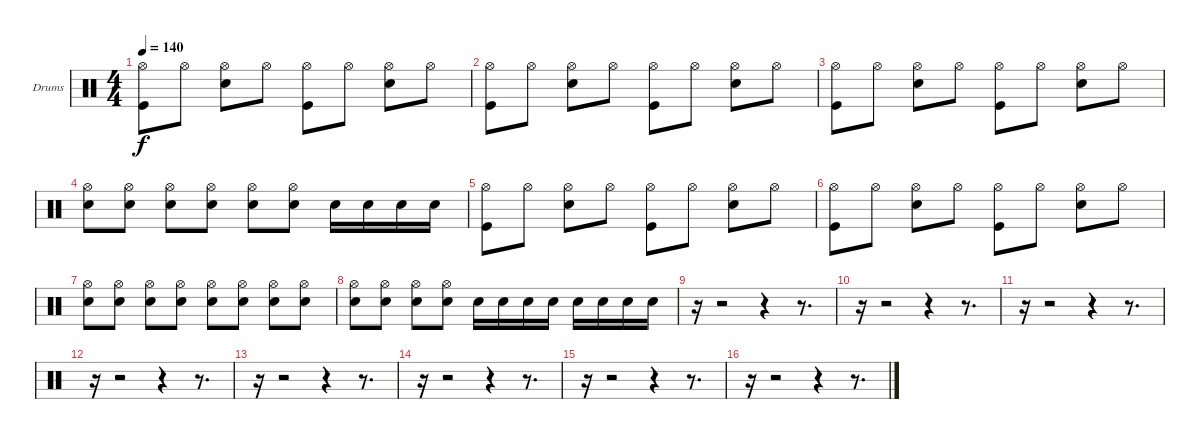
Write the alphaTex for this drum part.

\bracketExtendMode groupsimilarinstruments
\firstSystemTrackNameOrientation horizontal
\otherSystemsTrackNameOrientation horizontal
\track ("Drumkit" "Drums") {instrument percussion}
\staff {score}
\articulation defaults
\ts (4 4)
\tempo 140
\clef neutral
\scale
0.333333
\ks c
("Hi-Hat (open)" "Kick (hit)").8{dy f} "Hi-Hat (open)".8 ("Hi-Hat (open)" "Snare (hit) 2").8 "Hi-Hat (open)".8 ("Hi-Hat (open)" "Kick (hit)").8 "Hi-Hat (open)".8 ("Hi-Hat (open)" "Snare (hit) 2").8 "Hi-Hat (open)".8 |
\scale
0.333333 ("Hi-Hat (open)" "Kick (hit)").8 "Hi-Hat (open)".8 ("Hi-Hat (open)" "Snare (hit) 2").8 "Hi-Hat (open)".8 ("Hi-Hat (open)" "Kick (hit)").8 "Hi-Hat (open)".8 ("Hi-Hat (open)" "Snare (hit) 2").8 "Hi-Hat (open)".8 |
\scale
0.333333 ("Hi-Hat (open)" "Kick (hit)").8 "Hi-Hat (open)".8 ("Hi-Hat (open)" "Snare (hit) 2").8 "Hi-Hat (open)".8 ("Hi-Hat (open)" "Kick (hit)").8 "Hi-Hat (open)".8 ("Hi-Hat (open)" "Snare (hit) 2").8 "Hi-Hat (open)".8 |
\scale
0.333333 ("Hi-Hat (open)" "Snare (hit) 2").8 ("Hi-Hat (open)" "Snare (hit) 2").8 ("Hi-Hat (open)" "Snare (hit) 2").8 ("Hi-Hat (open)" "Snare (hit) 2").8 ("Hi-Hat (open)" "Snare (hit) 2").8 ("Hi-Hat (open)" "Snare (hit) 2").8 "Snare (hit) 2".16 "Snare (hit) 2".16 "Snare (hit) 2".16 "Snare (hit) 2".16 |
\scale
0.333333 ("Hi-Hat (open)" "Kick (hit)").8 "Hi-Hat (open)".8 ("Hi-Hat (open)" "Snare (hit) 2").8 "Hi-Hat (open)".8 ("Hi-Hat (open)" "Kick (hit)").8 "Hi-Hat (open)".8 ("Hi-Hat (open)" "Snare (hit) 2").8 "Hi-Hat (open)".8 |
\scale
0.333333 ("Hi-Hat (open)" "Kick (hit)").8 "Hi-Hat (open)".8 ("Hi-Hat (open)" "Snare (hit) 2").8 "Hi-Hat (open)".8 ("Hi-Hat (open)" "Kick (hit)").8 "Hi-Hat (open)".8 ("Hi-Hat (open)" "Snare (hit) 2").8 "Hi-Hat (open)".8 |
\scale
0.333333 ("Hi-Hat (open)" "Snare (hit) 2").8 ("Hi-Hat (open)" "Snare (hit) 2").8 ("Hi-Hat (open)" "Snare (hit) 2").8 ("Hi-Hat (open)" "Snare (hit) 2").8 ("Hi-Hat (open)" "Snare (hit) 2").8 ("Hi-Hat (open)" "Snare (hit) 2").8 ("Hi-Hat (open)" "Snare (hit) 2").8 ("Hi-Hat (open)" "Snare (hit) 2").8 |
\scale
0.333333 ("Hi-Hat (open)" "Snare (hit) 2").8 ("Hi-Hat (open)" "Snare (hit) 2").8 ("Hi-Hat (open)" "Snare (hit) 2").8 ("Hi-Hat (open)" "Snare (hit) 2").8 "Snare (hit) 2".16 "Snare (hit) 2".16 "Snare (hit) 2".16 "Snare (hit) 2".16 "Snare (hit) 2".16 "Snare (hit) 2".16 "Snare (hit) 2".16 "Snare (hit) 2".16 |
\scale
0.333333 r.16 r.2 r.4 r.8{d} |
\scale
0.333333 r.16 r.2 r.4 r.8{d} |
\scale
0.333333 r.16 r.2 r.4 r.8{d} |
\scale
0.333333 r.16 r.2 r.4 r.8{d} |
\scale
0.333333 r.16 r.2 r.4 r.8{d} |
\scale
0.333333 r.16 r.2 r.4 r.8{d} |
\scale
0.333333 r.16 r.2 r.4 r.8{d} |
\scale
0.333333 r.16 r.2 r.4 r.8{d}
